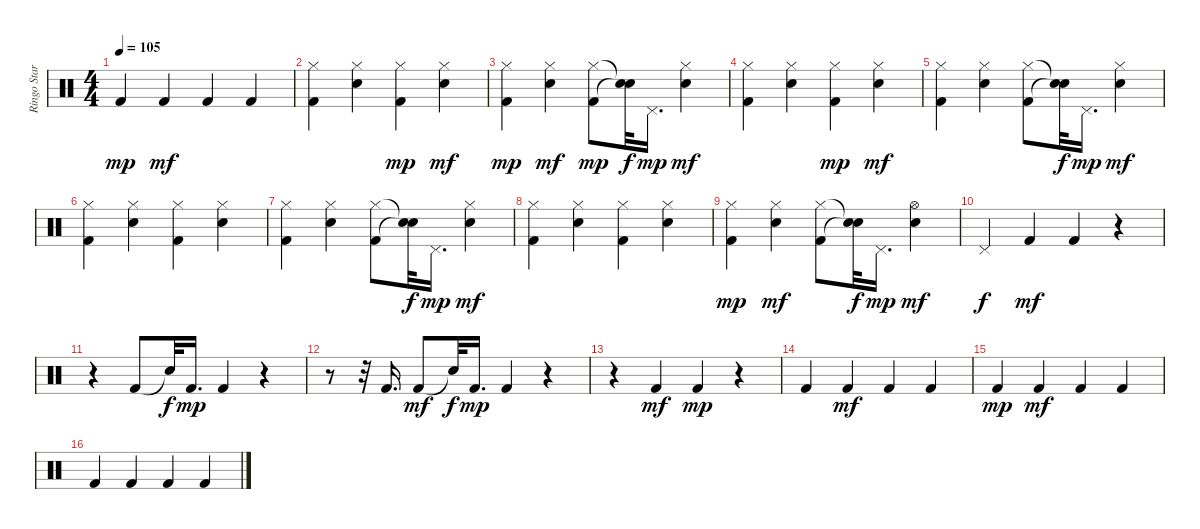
\track ("Ringo Starr" "Ringo Star") {instrument percussion}
\staff {score}
\articulation defaults
\ts (4 4)
\tempo 105
\clef neutral
\ks c "Kick (hit) 2".4{dy mp} "Kick (hit) 2".4{dy mf} "Kick (hit) 2".4 "Kick (hit) 2".4
|
("Kick (hit) 2" "Hi-Hat (closed)").4 ("Snare (hit) 2" "Hi-Hat (closed)").4 ("Kick (hit) 2" "Hi-Hat (closed)").4{dy mp} ("Snare (hit) 2" "Hi-Hat (closed)").4{dy mf} |
("Kick (hit) 2" "Hi-Hat (closed)").4{dy mp} ("Snare (hit) 2" "Hi-Hat (closed)").4{dy mf} ("Kick (hit) 2" "Hi-Hat (closed)").8{dy mp} ("Snare (hit)"{t} "Snare (hit)"{t}).32{dy f} "Pedal Hi-Hat (hit)".16{d dy mp} ("Snare (hit) 2" "Hi-Hat (closed)").4{dy mf} |
("Kick (hit) 2" "Hi-Hat (closed)").4 ("Snare (hit) 2" "Hi-Hat (closed)").4 ("Kick (hit) 2" "Hi-Hat (closed)").4{dy mp} ("Snare (hit) 2" "Hi-Hat (closed)").4{dy mf} |
("Kick (hit) 2" "Hi-Hat (closed)").4 ("Snare (hit) 2" "Hi-Hat (closed)").4 ("Kick (hit) 2" "Hi-Hat (closed)").8 ("Snare (hit)"{t} "Snare (hit)"{t}).32{dy f} "Pedal Hi-Hat (hit)".16{d dy mp} ("Snare (hit) 2" "Hi-Hat (closed)").4{dy mf} |
("Kick (hit) 2" "Hi-Hat (closed)").4 ("Snare (hit) 2" "Hi-Hat (closed)").4 ("Kick (hit) 2" "Hi-Hat (closed)").4 ("Snare (hit) 2" "Hi-Hat (closed)").4 |
("Kick (hit) 2" "Hi-Hat (closed)").4 ("Snare (hit) 2" "Hi-Hat (closed)").4 ("Kick (hit) 2" "Hi-Hat (closed)").8 ("Snare (hit)"{t} "Snare (hit)"{t}).32{dy f} "Pedal Hi-Hat (hit)".16{d dy mp} ("Snare (hit) 2" "Hi-Hat (closed)").4{dy mf} |
("Kick (hit) 2" "Hi-Hat (closed)").4 ("Snare (hit) 2" "Hi-Hat (closed)").4 ("Kick (hit) 2" "Hi-Hat (closed)").4 ("Snare (hit) 2" "Hi-Hat (closed)").4 |
("Kick (hit) 2" "Hi-Hat (closed)").4{dy mp} ("Snare (hit) 2" "Hi-Hat (closed)").4{dy mf} ("Kick (hit) 2" "Hi-Hat (closed)").8 ("Snare (hit)"{t} "Snare (hit)"{t}).32{dy f} "Pedal Hi-Hat (hit)".16{d dy mp} ("Snare (hit) 2" "Hi-Hat (open)").4{dy mf} |
"Pedal Hi-Hat (hit)".4{dy f} "Kick (hit) 2".4{dy mf} "Kick (hit) 2".4 r.4 |
r.4 "Kick (hit) 2".8 "Snare (hit)"{t}.32{dy f} "Kick (hit) 2".16{d dy mp} "Kick (hit) 2".4 r.4 |
r.8 r.32 "Kick (hit) 2".16{d} "Kick (hit) 2".8{dy mf} "Snare (hit)"{t}.32{dy f} "Kick (hit) 2".16{d dy mp} "Kick (hit) 2".4 r.4 |
r.4 "Kick (hit) 2".4{dy mf} "Kick (hit) 2".4{dy mp} r.4 |
"Kick (hit) 2".4 "Kick (hit) 2".4{dy mf} "Kick (hit) 2".4 "Kick (hit) 2".4 |
"Kick (hit) 2".4{dy mp} "Kick (hit) 2".4{dy mf} "Kick (hit) 2".4 "Kick (hit) 2".4 |
"Kick (hit) 2".4 "Kick (hit) 2".4 "Kick (hit) 2".4 "Kick (hit) 2".4
